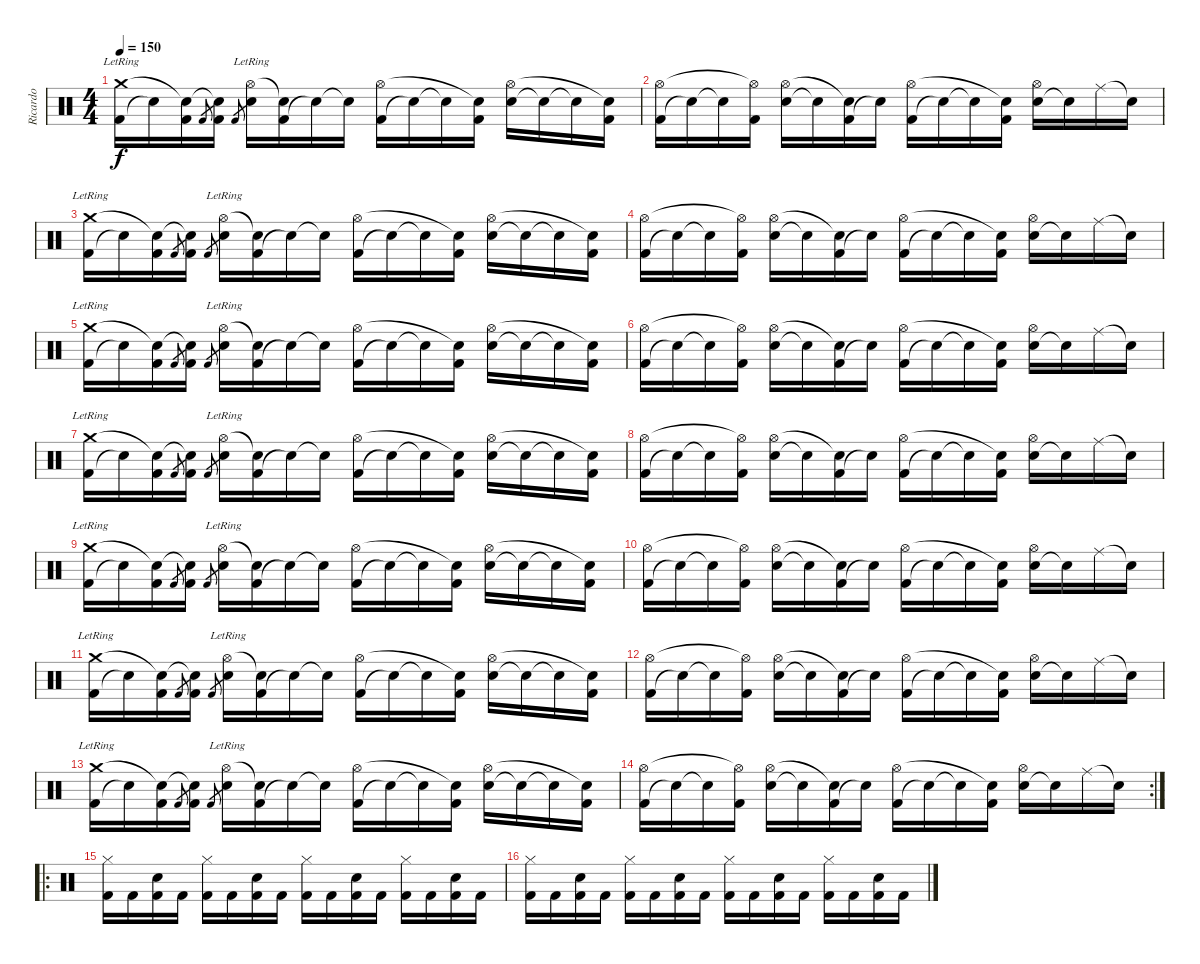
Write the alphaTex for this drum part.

\track ("Ricardo" "Ricardo") {instrument percussion}
\staff {score}
\articulation defaults
\ts (4 4)
\tempo 150
\clef neutral
\ks c
("Kick (hit) 2" "Crash medium (hit)"{lr}).16{dy f} "Snare (hit)"{t}.16 ("Kick (hit) 2" "Snare (hit)"{t}).16 "Kick (hit) 2".8{gr} ("Kick (hit) 2" "Snare (hit)"{t}).16 "Kick (hit) 2".8{gr} ("Snare (hit) 2" "Hi-Hat (open)"{lr}).16 ("Kick (hit) 2" "Snare (hit)"{t}).16 "Snare (hit)"{t}.16 "Snare (hit)"{t}.16 ("Kick (hit) 2" "Hi-Hat (open)").16 "Snare (hit)"{t}.16 "Snare (hit)"{t}.16 ("Kick (hit) 2" "Snare (hit)"{t}).16 ("Snare (hit) 2" "Hi-Hat (open)").16 "Snare (hit)"{t}.16 "Snare (hit)"{t}.16 ("Kick (hit) 2" "Snare (hit)"{t}).16 |
("Kick (hit) 2" "Hi-Hat (open)").16 "Snare (hit)"{t}.16 "Snare (hit)"{t}.16 ("Kick (hit) 2" "Hi-Hat (open)"{t}).16 ("Snare (hit) 2" "Hi-Hat (open)").16 "Snare (hit)"{t}.16 ("Kick (hit) 2" "Snare (hit)"{t}).16 "Snare (hit)"{t}.16 ("Kick (hit) 2" "Hi-Hat (open)").16 "Snare (hit)"{t}.16 "Snare (hit)"{t}.16 ("Kick (hit) 2" "Snare (hit)"{t}).16 ("Snare (hit) 2" "Hi-Hat (open)").16 "Snare (hit)"{t}.16 "Ride (middle)".16 "Snare (hit)"{t}.16 |
("Kick (hit) 2" "Crash medium (hit)"{lr}).16 "Snare (hit)"{t}.16 ("Kick (hit) 2" "Snare (hit)"{t}).16 "Kick (hit) 2".8{gr} ("Kick (hit) 2" "Snare (hit)"{t}).16 "Kick (hit) 2".8{gr} ("Snare (hit) 2" "Hi-Hat (open)"{lr}).16 ("Kick (hit) 2" "Snare (hit)"{t}).16 "Snare (hit)"{t}.16 "Snare (hit)"{t}.16 ("Kick (hit) 2" "Hi-Hat (open)").16 "Snare (hit)"{t}.16 "Snare (hit)"{t}.16 ("Kick (hit) 2" "Snare (hit)"{t}).16 ("Snare (hit) 2" "Hi-Hat (open)").16 "Snare (hit)"{t}.16 "Snare (hit)"{t}.16 ("Kick (hit) 2" "Snare (hit)"{t}).16 |
("Kick (hit) 2" "Hi-Hat (open)").16 "Snare (hit)"{t}.16 "Snare (hit)"{t}.16 ("Kick (hit) 2" "Hi-Hat (open)"{t}).16 ("Snare (hit) 2" "Hi-Hat (open)").16 "Snare (hit)"{t}.16 ("Kick (hit) 2" "Snare (hit)"{t}).16 "Snare (hit)"{t}.16 ("Kick (hit) 2" "Hi-Hat (open)").16 "Snare (hit)"{t}.16 "Snare (hit)"{t}.16 ("Kick (hit) 2" "Snare (hit)"{t}).16 ("Snare (hit) 2" "Hi-Hat (open)").16 "Snare (hit)"{t}.16 "Ride (middle)".16 "Snare (hit)"{t}.16 |
("Kick (hit) 2" "Crash medium (hit)"{lr}).16 "Snare (hit)"{t}.16 ("Kick (hit) 2" "Snare (hit)"{t}).16 "Kick (hit) 2".8{gr} ("Kick (hit) 2" "Snare (hit)"{t}).16 "Kick (hit) 2".8{gr} ("Snare (hit) 2" "Hi-Hat (open)"{lr}).16 ("Kick (hit) 2" "Snare (hit)"{t}).16 "Snare (hit)"{t}.16 "Snare (hit)"{t}.16 ("Kick (hit) 2" "Hi-Hat (open)").16 "Snare (hit)"{t}.16 "Snare (hit)"{t}.16 ("Kick (hit) 2" "Snare (hit)"{t}).16 ("Snare (hit) 2" "Hi-Hat (open)").16 "Snare (hit)"{t}.16 "Snare (hit)"{t}.16 ("Kick (hit) 2" "Snare (hit)"{t}).16 |
("Kick (hit) 2" "Hi-Hat (open)").16 "Snare (hit)"{t}.16 "Snare (hit)"{t}.16 ("Kick (hit) 2" "Hi-Hat (open)"{t}).16 ("Snare (hit) 2" "Hi-Hat (open)").16 "Snare (hit)"{t}.16 ("Kick (hit) 2" "Snare (hit)"{t}).16 "Snare (hit)"{t}.16 ("Kick (hit) 2" "Hi-Hat (open)").16 "Snare (hit)"{t}.16 "Snare (hit)"{t}.16 ("Kick (hit) 2" "Snare (hit)"{t}).16 ("Snare (hit) 2" "Hi-Hat (open)").16 "Snare (hit)"{t}.16 "Ride (middle)".16 "Snare (hit)"{t}.16 |
("Kick (hit) 2" "Crash medium (hit)"{lr}).16 "Snare (hit)"{t}.16 ("Kick (hit) 2" "Snare (hit)"{t}).16 "Kick (hit) 2".8{gr} ("Kick (hit) 2" "Snare (hit)"{t}).16 "Kick (hit) 2".8{gr} ("Snare (hit) 2" "Hi-Hat (open)"{lr}).16 ("Kick (hit) 2" "Snare (hit)"{t}).16 "Snare (hit)"{t}.16 "Snare (hit)"{t}.16 ("Kick (hit) 2" "Hi-Hat (open)").16 "Snare (hit)"{t}.16 "Snare (hit)"{t}.16 ("Kick (hit) 2" "Snare (hit)"{t}).16 ("Snare (hit) 2" "Hi-Hat (open)").16 "Snare (hit)"{t}.16 "Snare (hit)"{t}.16 ("Kick (hit) 2" "Snare (hit)"{t}).16 |
("Kick (hit) 2" "Hi-Hat (open)").16 "Snare (hit)"{t}.16 "Snare (hit)"{t}.16 ("Kick (hit) 2" "Hi-Hat (open)"{t}).16 ("Snare (hit) 2" "Hi-Hat (open)").16 "Snare (hit)"{t}.16 ("Kick (hit) 2" "Snare (hit)"{t}).16 "Snare (hit)"{t}.16 ("Kick (hit) 2" "Hi-Hat (open)").16 "Snare (hit)"{t}.16 "Snare (hit)"{t}.16 ("Kick (hit) 2" "Snare (hit)"{t}).16 ("Snare (hit) 2" "Hi-Hat (open)").16 "Snare (hit)"{t}.16 "Ride (middle)".16 "Snare (hit)"{t}.16 |
("Kick (hit) 2" "Crash medium (hit)"{lr}).16 "Snare (hit)"{t}.16 ("Kick (hit) 2" "Snare (hit)"{t}).16 "Kick (hit) 2".8{gr} ("Kick (hit) 2" "Snare (hit)"{t}).16 "Kick (hit) 2".8{gr} ("Snare (hit) 2" "Hi-Hat (open)"{lr}).16 ("Kick (hit) 2" "Snare (hit)"{t}).16 "Snare (hit)"{t}.16 "Snare (hit)"{t}.16 ("Kick (hit) 2" "Hi-Hat (open)").16 "Snare (hit)"{t}.16 "Snare (hit)"{t}.16 ("Kick (hit) 2" "Snare (hit)"{t}).16 ("Snare (hit) 2" "Hi-Hat (open)").16 "Snare (hit)"{t}.16 "Snare (hit)"{t}.16 ("Kick (hit) 2" "Snare (hit)"{t}).16 |
("Kick (hit) 2" "Hi-Hat (open)").16 "Snare (hit)"{t}.16 "Snare (hit)"{t}.16 ("Kick (hit) 2" "Hi-Hat (open)"{t}).16 ("Snare (hit) 2" "Hi-Hat (open)").16 "Snare (hit)"{t}.16 ("Kick (hit) 2" "Snare (hit)"{t}).16 "Snare (hit)"{t}.16 ("Kick (hit) 2" "Hi-Hat (open)").16 "Snare (hit)"{t}.16 "Snare (hit)"{t}.16 ("Kick (hit) 2" "Snare (hit)"{t}).16 ("Snare (hit) 2" "Hi-Hat (open)").16 "Snare (hit)"{t}.16 "Ride (middle)".16 "Snare (hit)"{t}.16 |
("Kick (hit) 2" "Crash medium (hit)"{lr}).16 "Snare (hit)"{t}.16 ("Kick (hit) 2" "Snare (hit)"{t}).16 "Kick (hit) 2".8{gr} ("Kick (hit) 2" "Snare (hit)"{t}).16 "Kick (hit) 2".8{gr} ("Snare (hit) 2" "Hi-Hat (open)"{lr}).16 ("Kick (hit) 2" "Snare (hit)"{t}).16 "Snare (hit)"{t}.16 "Snare (hit)"{t}.16 ("Kick (hit) 2" "Hi-Hat (open)").16 "Snare (hit)"{t}.16 "Snare (hit)"{t}.16 ("Kick (hit) 2" "Snare (hit)"{t}).16 ("Snare (hit) 2" "Hi-Hat (open)").16 "Snare (hit)"{t}.16 "Snare (hit)"{t}.16 ("Kick (hit) 2" "Snare (hit)"{t}).16 |
("Kick (hit) 2" "Hi-Hat (open)").16 "Snare (hit)"{t}.16 "Snare (hit)"{t}.16 ("Kick (hit) 2" "Hi-Hat (open)"{t}).16 ("Snare (hit) 2" "Hi-Hat (open)").16 "Snare (hit)"{t}.16 ("Kick (hit) 2" "Snare (hit)"{t}).16 "Snare (hit)"{t}.16 ("Kick (hit) 2" "Hi-Hat (open)").16 "Snare (hit)"{t}.16 "Snare (hit)"{t}.16 ("Kick (hit) 2" "Snare (hit)"{t}).16 ("Snare (hit) 2" "Hi-Hat (open)").16 "Snare (hit)"{t}.16 "Ride (middle)".16 "Snare (hit)"{t}.16 |
("Kick (hit) 2" "Crash medium (hit)"{lr}).16 "Snare (hit)"{t}.16 ("Kick (hit) 2" "Snare (hit)"{t}).16 "Kick (hit) 2".8{gr} ("Kick (hit) 2" "Snare (hit)"{t}).16 "Kick (hit) 2".8{gr} ("Snare (hit) 2" "Hi-Hat (open)"{lr}).16 ("Kick (hit) 2" "Snare (hit)"{t}).16 "Snare (hit)"{t}.16 "Snare (hit)"{t}.16 ("Kick (hit) 2" "Hi-Hat (open)").16 "Snare (hit)"{t}.16 "Snare (hit)"{t}.16 ("Kick (hit) 2" "Snare (hit)"{t}).16 ("Snare (hit) 2" "Hi-Hat (open)").16 "Snare (hit)"{t}.16 "Snare (hit)"{t}.16 ("Kick (hit) 2" "Snare (hit)"{t}).16 |
\rc 2
("Kick (hit) 2" "Hi-Hat (open)").16 "Snare (hit)"{t}.16 "Snare (hit)"{t}.16 ("Kick (hit) 2" "Hi-Hat (open)"{t}).16 ("Snare (hit) 2" "Hi-Hat (open)").16 "Snare (hit)"{t}.16 ("Kick (hit) 2" "Snare (hit)"{t}).16 "Snare (hit)"{t}.16 ("Kick (hit) 2" "Hi-Hat (open)").16 "Snare (hit)"{t}.16 "Snare (hit)"{t}.16 ("Kick (hit) 2" "Snare (hit)"{t}).16 ("Snare (hit) 2" "Hi-Hat (open)").16 "Snare (hit)"{t}.16 "Ride (middle)".16 "Snare (hit)"{t}.16 |
\ro
("Kick (hit) 2" "Hi-Hat (closed)").16 "Kick (hit) 2".16 ("Kick (hit) 2" "Snare (hit) 2").16 "Kick (hit) 2".16 ("Kick (hit) 2" "Hi-Hat (closed)").16 "Kick (hit) 2".16 ("Kick (hit) 2" "Snare (hit) 2").16 "Kick (hit) 2".16 ("Kick (hit) 2" "Hi-Hat (closed)").16 "Kick (hit) 2".16 ("Kick (hit) 2" "Snare (hit) 2").16 "Kick (hit) 2".16 ("Kick (hit) 2" "Hi-Hat (closed)").16 "Kick (hit) 2".16 ("Kick (hit) 2" "Snare (hit) 2").16 "Kick (hit) 2".16 |
("Kick (hit) 2" "Hi-Hat (closed)").16 "Kick (hit) 2".16 ("Kick (hit) 2" "Snare (hit) 2").16 "Kick (hit) 2".16 ("Kick (hit) 2" "Hi-Hat (closed)").16 "Kick (hit) 2".16 ("Kick (hit) 2" "Snare (hit) 2").16 "Kick (hit) 2".16 ("Kick (hit) 2" "Hi-Hat (closed)").16 "Kick (hit) 2".16 ("Kick (hit) 2" "Snare (hit) 2").16 "Kick (hit) 2".16 ("Kick (hit) 2" "Hi-Hat (closed)").16 "Kick (hit) 2".16 ("Kick (hit) 2" "Snare (hit) 2").16 "Kick (hit) 2".16
